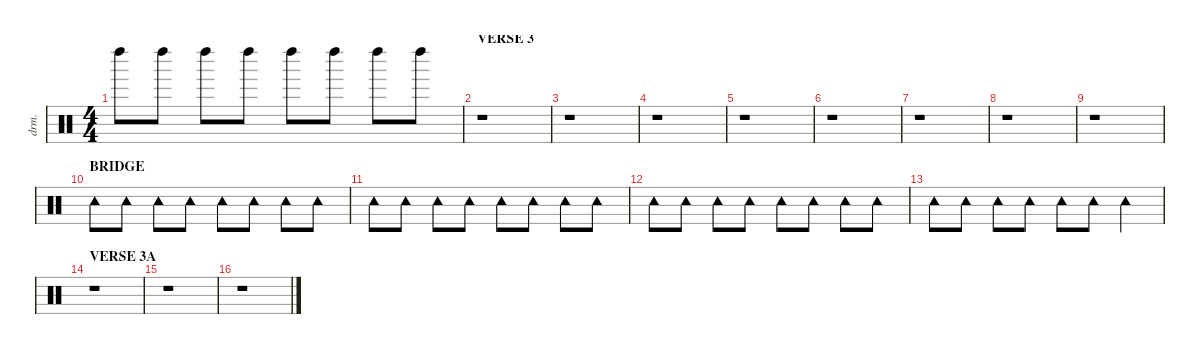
\defaultSystemsLayout 4
\hideDynamics
\bracketExtendMode nobrackets
\otherSystemsTrackNameOrientation horizontal
\track ("Percussion" "drm.") {defaultSystemsLayout 8 solo instrument percussion}
\staff {score}
\articulation defaults
\ts (4 4)
\tempo (127 hide)
\clef neutral
\ks c "Left Maraca (hit)".8{dy f beam Down} "Left Maraca (hit)".8{beam Down} "Left Maraca (hit)".8{dy fff beam Down} "Left Maraca (hit)".8{dy f beam Down} "Left Maraca (hit)".8{beam Down} "Left Maraca (hit)".8{beam Down} "Left Maraca (hit)".8{dy fff beam Down} "Left Maraca (hit)".8{dy f beam Down}
|
\section ("" "VERSE 3")
r.1{beam Down} |
r.1{beam Down} |
r.1{beam Down} |
r.1{beam Down} |
r.1{beam Down} |
r.1{beam Down} |
r.1{beam Down} |
r.1{beam Down} |
\section ("" "BRIDGE")
\tempo (128 hide)
"Tambourine (hit)".8{beam Down} "Tambourine (hit)".8{beam Down} "Tambourine (hit)".8{dy fff beam Down} "Tambourine (hit)".8{dy f beam Down} "Tambourine (hit)".8{beam Down} "Tambourine (hit)".8{beam Down} "Tambourine (hit)".8{dy fff beam Down} "Tambourine (hit)".8{dy f beam Down} |
"Tambourine (hit)".8{beam Down} "Tambourine (hit)".8{beam Down} "Tambourine (hit)".8{dy fff beam Down} "Tambourine (hit)".8{dy f beam Down} "Tambourine (hit)".8{beam Down} "Tambourine (hit)".8{beam Down} "Tambourine (hit)".8{dy fff beam Down} "Tambourine (hit)".8{dy f beam Down} |
"Tambourine (hit)".8{beam Down} "Tambourine (hit)".8{beam Down} "Tambourine (hit)".8{dy fff beam Down} "Tambourine (hit)".8{dy f beam Down} "Tambourine (hit)".8{beam Down} "Tambourine (hit)".8{beam Down} "Tambourine (hit)".8{dy fff beam Down} "Tambourine (hit)".8{dy f beam Down} |
"Tambourine (hit)".8{beam Down} "Tambourine (hit)".8{beam Down} "Tambourine (hit)".8{dy fff beam Down} "Tambourine (hit)".8{dy f beam Down} "Tambourine (hit)".8{beam Down} "Tambourine (hit)".8{beam Down} "Tambourine (hit)".4{dy fff beam Down} |
\section ("" "VERSE 3A")
r.1{beam Down} |
r.1{beam Down} |
r.1{beam Down}
